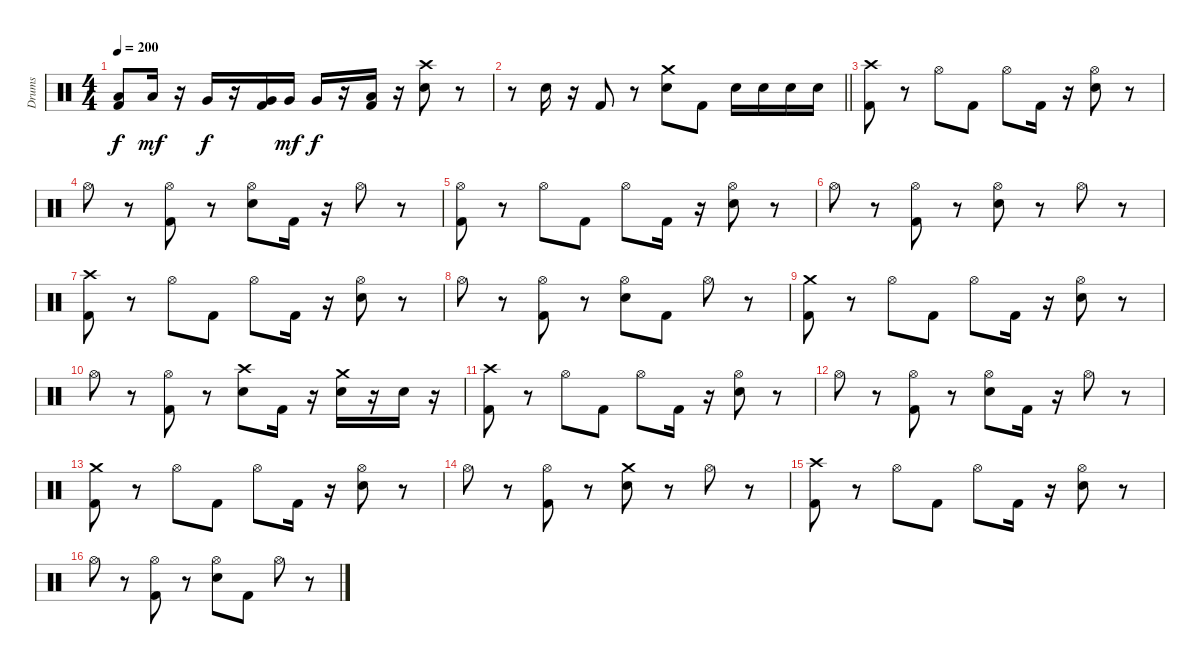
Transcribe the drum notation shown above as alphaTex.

\track ("Drums" "Drums") {instrument percussion}
\staff {score}
\articulation defaults
\ts (4 4)
\tempo 200
\clef neutral
\ks c
("Kick (hit) 2" "Low Tom (hit)").8{dy f} "Low Tom (hit)".16{dy mf} r.16 "Very Low Tom (hit)".16{dy f} r.16 ("Kick (hit) 2" "Very Low Tom (hit)").16 "Very Low Tom (hit)".16{dy mf} "Very Low Tom (hit)".16{dy f} r.16 ("Kick (hit) 2" "Low Floor Tom (hit)").16 r.16 ("Snare (hit) 2" "Crash high (hit)").8 r.8 |
\barLineRight lightlight
r.8 "Snare (hit) 2".16 r.16 "Kick (hit) 2".8 r.8 ("Snare (hit) 2" "Crash medium (hit)").8 "Kick (hit) 2".8 "Snare (hit) 2".16 "Snare (hit) 2".16 "Snare (hit) 2".16 "Snare (hit) 2".16 |
\section ("" " ")
("Kick (hit) 2" "Crash high (hit)").8 r.8 "Hi-Hat (open)".8 "Kick (hit) 2".8 "Hi-Hat (open)".8 "Kick (hit) 2".16 r.16 ("Snare (hit) 2" "Hi-Hat (open)").8 r.8 |
"Hi-Hat (open)".8 r.8 ("Kick (hit) 2" "Hi-Hat (open)").8 r.8 ("Snare (hit) 2" "Hi-Hat (open)").8 "Kick (hit) 2".16 r.16 "Hi-Hat (open)".8 r.8 |
("Kick (hit) 2" "Hi-Hat (open)").8 r.8 "Hi-Hat (open)".8 "Kick (hit) 2".8 "Hi-Hat (open)".8 "Kick (hit) 2".16 r.16 ("Snare (hit) 2" "Hi-Hat (open)").8 r.8 |
"Hi-Hat (open)".8 r.8 ("Kick (hit) 2" "Hi-Hat (open)").8 r.8 ("Snare (hit) 2" "Hi-Hat (open)").8 r.8 "Hi-Hat (open)".8 r.8 |
("Kick (hit) 2" "Crash high (hit)").8 r.8 "Hi-Hat (open)".8 "Kick (hit) 2".8 "Hi-Hat (open)".8 "Kick (hit) 2".16 r.16 ("Snare (hit) 2" "Hi-Hat (open)").8 r.8 |
"Hi-Hat (open)".8 r.8 ("Kick (hit) 2" "Hi-Hat (open)").8 r.8 ("Snare (hit) 2" "Hi-Hat (open)").8 "Kick (hit) 2".8 "Hi-Hat (open)".8 r.8 |
("Kick (hit) 2" "Crash medium (hit)").8 r.8 "Hi-Hat (open)".8 "Kick (hit) 2".8 "Hi-Hat (open)".8 "Kick (hit) 2".16 r.16 ("Snare (hit) 2" "Hi-Hat (open)").8 r.8 |
"Hi-Hat (open)".8 r.8 ("Kick (hit) 2" "Hi-Hat (open)").8 r.8 ("Snare (hit) 2" "Crash high (hit)").8 "Kick (hit) 2".16 r.16 ("Snare (hit) 2" "Crash medium (hit)").16 r.16 "Snare (hit) 2".16 r.16 |
("Kick (hit) 2" "Crash high (hit)").8 r.8 "Hi-Hat (open)".8 "Kick (hit) 2".8 "Hi-Hat (open)".8 "Kick (hit) 2".16 r.16 ("Snare (hit) 2" "Hi-Hat (open)").8 r.8 |
"Hi-Hat (open)".8 r.8 ("Kick (hit) 2" "Hi-Hat (open)").8 r.8 ("Snare (hit) 2" "Hi-Hat (open)").8 "Kick (hit) 2".16 r.16 "Hi-Hat (open)".8 r.8 |
("Kick (hit) 2" "Crash medium (hit)").8 r.8 "Hi-Hat (open)".8 "Kick (hit) 2".8 "Hi-Hat (open)".8 "Kick (hit) 2".16 r.16 ("Snare (hit) 2" "Hi-Hat (open)").8 r.8 |
"Hi-Hat (open)".8 r.8 ("Kick (hit) 2" "Hi-Hat (open)").8 r.8 ("Snare (hit) 2" "Crash medium (hit)").8 r.8 "Hi-Hat (open)".8 r.8 |
("Kick (hit) 2" "Crash high (hit)").8 r.8 "Hi-Hat (open)".8 "Kick (hit) 2".8 "Hi-Hat (open)".8 "Kick (hit) 2".16 r.16 ("Snare (hit) 2" "Hi-Hat (open)").8 r.8 |
"Hi-Hat (open)".8 r.8 ("Kick (hit) 2" "Hi-Hat (open)").8 r.8 ("Snare (hit) 2" "Hi-Hat (open)").8 "Kick (hit) 2".8 "Hi-Hat (open)".8 r.8
